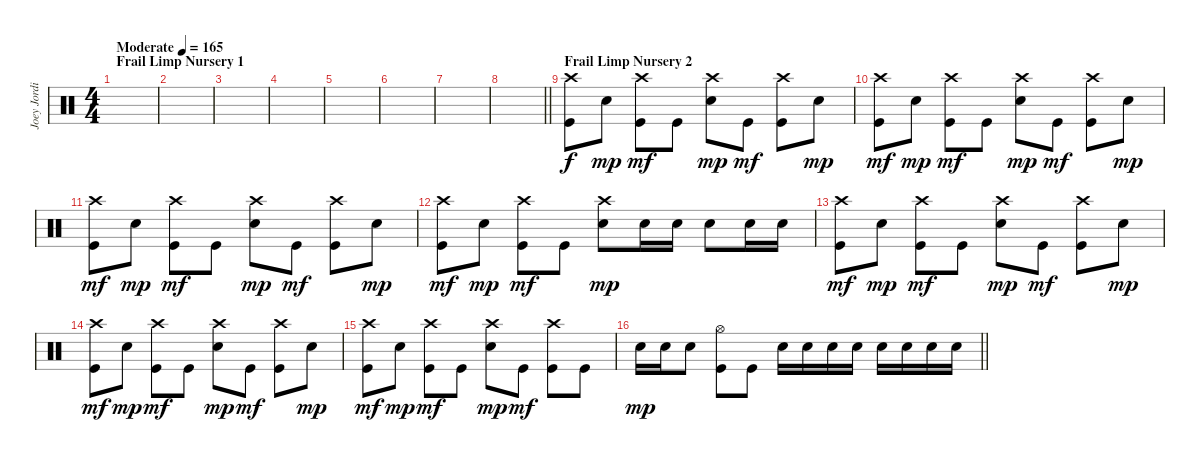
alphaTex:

\track ("Joey Jordison" "Joey Jordi") {instrument percussion}
\staff {score}
\articulation defaults
\ts (4 4)
\section ("" "Frail Limp Nursery 1")
\tempo (165 "Moderate")
\clef neutral
\ks c
|
|
|
|
|
|
|
\barLineRight lightlight
|
\section ("" "Frail Limp Nursery 2")
("Crash high (hit)" "Kick (hit)").8 "Snare (hit) 2".8{dy mp} ("Crash high (hit)" "Kick (hit)").8{dy mf} "Kick (hit)".8 ("Crash high (hit)" "Snare (hit) 2").8{dy mp} "Kick (hit)".8{dy mf} ("Crash high (hit)" "Kick (hit)").8 "Snare (hit) 2".8{dy mp} |
("Crash high (hit)" "Kick (hit)").8{dy mf} "Snare (hit) 2".8{dy mp} ("Crash high (hit)" "Kick (hit)").8{dy mf} "Kick (hit)".8 ("Crash high (hit)" "Snare (hit) 2").8{dy mp} "Kick (hit)".8{dy mf} ("Crash high (hit)" "Kick (hit)").8 "Snare (hit) 2".8{dy mp} |
("Crash high (hit)" "Kick (hit)").8{dy mf} "Snare (hit) 2".8{dy mp} ("Crash high (hit)" "Kick (hit)").8{dy mf} "Kick (hit)".8 ("Crash high (hit)" "Snare (hit) 2").8{dy mp} "Kick (hit)".8{dy mf} ("Crash high (hit)" "Kick (hit)").8 "Snare (hit) 2".8{dy mp} |
("Crash high (hit)" "Kick (hit)").8{dy mf} "Snare (hit) 2".8{dy mp} ("Crash high (hit)" "Kick (hit)").8{dy mf} "Kick (hit)".8 ("Crash high (hit)" "Snare (hit) 2").8{dy mp} "Snare (hit) 2".16 "Snare (hit) 2".16 "Snare (hit) 2".8 "Snare (hit) 2".16 "Snare (hit) 2".16 |
("Crash high (hit)" "Kick (hit)").8{dy mf} "Snare (hit) 2".8{dy mp} ("Crash high (hit)" "Kick (hit)").8{dy mf} "Kick (hit)".8 ("Crash high (hit)" "Snare (hit) 2").8{dy mp} "Kick (hit)".8{dy mf} ("Crash high (hit)" "Kick (hit)").8 "Snare (hit) 2".8{dy mp} |
("Crash high (hit)" "Kick (hit)").8{dy mf} "Snare (hit) 2".8{dy mp} ("Crash high (hit)" "Kick (hit)").8{dy mf} "Kick (hit)".8 ("Crash high (hit)" "Snare (hit) 2").8{dy mp} "Kick (hit)".8{dy mf} ("Crash high (hit)" "Kick (hit)").8 "Snare (hit) 2".8{dy mp} |
("Crash high (hit)" "Kick (hit)").8{dy mf} "Snare (hit) 2".8{dy mp} ("Crash high (hit)" "Kick (hit)").8{dy mf} "Kick (hit)".8 ("Crash high (hit)" "Snare (hit) 2").8{dy mp} "Kick (hit)".8{dy mf} ("Crash high (hit)" "Kick (hit)").8 "Kick (hit)".8 |
\barLineRight lightlight "Snare (hit) 2".16{dy mp} "Snare (hit) 2".16 "Snare (hit) 2".8
("Hi-Hat (open)" "Kick (hit)").8 "Kick (hit)".8 "Snare (hit) 2".16 "Snare (hit) 2".16 "Snare (hit) 2".16 "Snare (hit) 2".16 "Snare (hit) 2".16 "Snare (hit) 2".16 "Snare (hit) 2".16 "Snare (hit) 2".16
